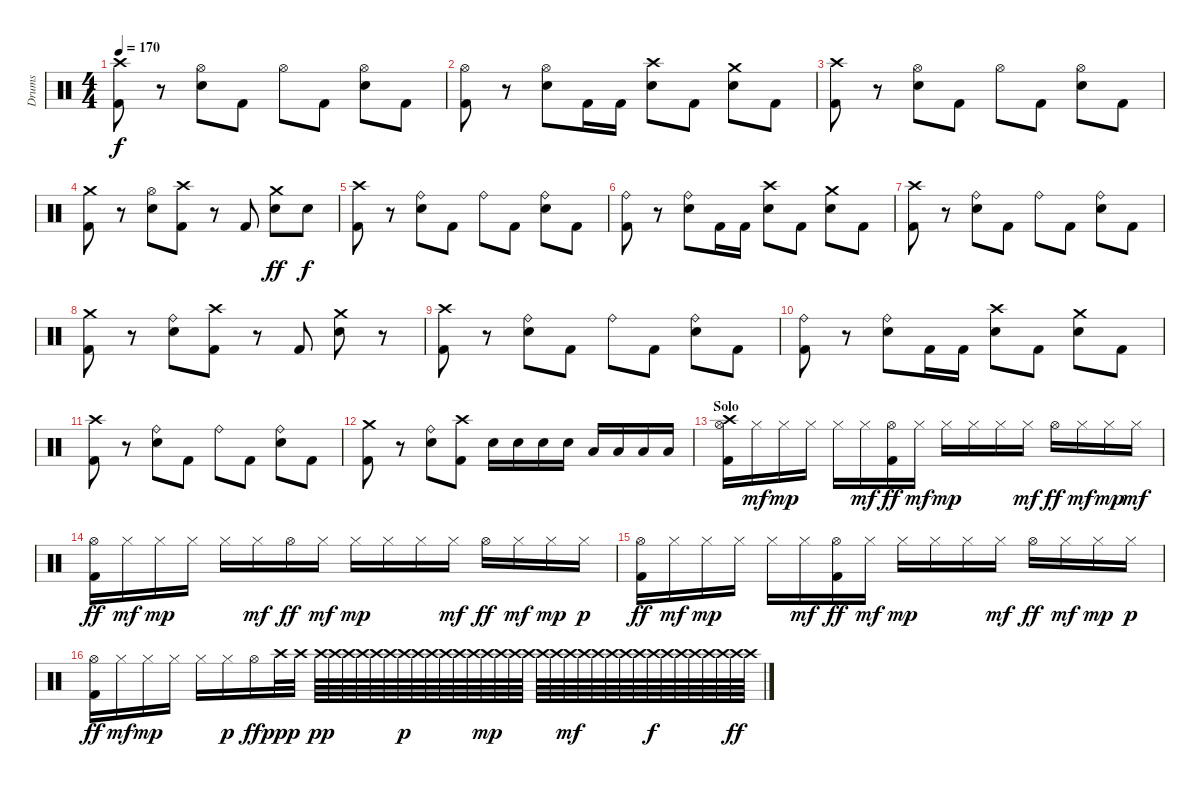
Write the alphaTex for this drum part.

\track ("Drums" "Drums") {instrument percussion}
\staff {score}
\articulation defaults
\ts (4 4)
\tempo 170
\clef neutral
\ks c
("Kick (hit) 2" "Crash high (hit)").8{dy f} r.8 ("Hi-Hat (open)" "Electric Snare (hit)").8 "Kick (hit) 2".8 "Hi-Hat (open)".8 "Kick (hit) 2".8 ("Hi-Hat (open)" "Electric Snare (hit)").8 "Kick (hit) 2".8 |
("Kick (hit) 2" "Hi-Hat (open)").8 r.8 ("Hi-Hat (open)" "Electric Snare (hit)").8 "Kick (hit) 2".16 "Kick (hit) 2".16 ("Electric Snare (hit)" "Crash high (hit)").8 "Kick (hit) 2".8 ("Electric Snare (hit)" "Crash medium (hit)").8 "Kick (hit) 2".8 |
("Kick (hit) 2" "Crash high (hit)").8 r.8 ("Hi-Hat (open)" "Electric Snare (hit)").8 "Kick (hit) 2".8 "Hi-Hat (open)".8 "Kick (hit) 2".8 ("Hi-Hat (open)" "Electric Snare (hit)").8 "Kick (hit) 2".8 |
("Kick (hit) 2" "Crash medium (hit)").8 r.8 ("Hi-Hat (open)" "Electric Snare (hit)").8 ("Kick (hit) 2" "Crash high (hit)").8 r.8 "Kick (hit) 2".8 ("Electric Snare (hit)" "Crash medium (hit)").8{dy ff} "Electric Snare (hit)".8{dy f} |
("Kick (hit) 2" "Crash high (hit)").8 r.8 ("Ride (bell)" "Electric Snare (hit)").8 "Kick (hit) 2".8 "Ride (bell)".8 "Kick (hit) 2".8 ("Ride (bell)" "Electric Snare (hit)").8 "Kick (hit) 2".8 |
("Kick (hit) 2" "Ride (bell)").8 r.8 ("Ride (bell)" "Electric Snare (hit)").8 "Kick (hit) 2".16 "Kick (hit) 2".16 ("Electric Snare (hit)" "Crash high (hit)").8 "Kick (hit) 2".8 ("Electric Snare (hit)" "Crash medium (hit)").8 "Kick (hit) 2".8 |
("Kick (hit) 2" "Crash high (hit)").8 r.8 ("Ride (bell)" "Electric Snare (hit)").8 "Kick (hit) 2".8 "Ride (bell)".8 "Kick (hit) 2".8 ("Ride (bell)" "Electric Snare (hit)").8 "Kick (hit) 2".8 |
("Kick (hit) 2" "Crash medium (hit)").8 r.8 ("Ride (bell)" "Electric Snare (hit)").8 ("Kick (hit) 2" "Crash high (hit)").8 r.8 "Kick (hit) 2".8 ("Electric Snare (hit)" "Crash medium (hit)").8 r.8 |
("Kick (hit) 2" "Crash high (hit)").8 r.8 ("Ride (bell)" "Electric Snare (hit)").8 "Kick (hit) 2".8 "Ride (bell)".8 "Kick (hit) 2".8 ("Ride (bell)" "Electric Snare (hit)").8 "Kick (hit) 2".8 |
("Kick (hit) 2" "Ride (bell)").8 r.8 ("Ride (bell)" "Electric Snare (hit)").8 "Kick (hit) 2".16 "Kick (hit) 2".16 ("Electric Snare (hit)" "Crash high (hit)").8 "Kick (hit) 2".8 ("Electric Snare (hit)" "Crash medium (hit)").8 "Kick (hit) 2".8 |
("Kick (hit) 2" "Crash high (hit)").8 r.8 ("Ride (bell)" "Electric Snare (hit)").8 "Kick (hit) 2".8 "Ride (bell)".8 "Kick (hit) 2".8 ("Ride (bell)" "Electric Snare (hit)").8 "Kick (hit) 2".8 |
("Kick (hit) 2" "Crash medium (hit)").8 r.8 ("Ride (bell)" "Electric Snare (hit)").8 ("Kick (hit) 2" "Crash high (hit)").8 "Electric Snare (hit)".16 "Electric Snare (hit)".16 "Electric Snare (hit)".16 "Electric Snare (hit)".16 "Low Tom (hit)".16 "Low Tom (hit)".16 "Low Tom (hit)".16 "Low Tom (hit)".16 |
\section ("" "Solo")
("Kick (hit) 2" "Hi-Hat (open)" "Crash high (hit)").16 "Hi-Hat (closed)".16{dy mf} "Hi-Hat (closed)".16{dy mp} "Hi-Hat (closed)".16 "Hi-Hat (closed)".16 "Hi-Hat (closed)".16{dy mf} ("Kick (hit) 2" "Hi-Hat (open)").16{dy ff} "Hi-Hat (closed)".16{dy mf} "Hi-Hat (closed)".16{dy mp} "Hi-Hat (closed)".16 "Hi-Hat (closed)".16 "Hi-Hat (closed)".16{dy mf} "Hi-Hat (open)".16{dy ff} "Hi-Hat (closed)".16{dy mf} "Hi-Hat (closed)".16{dy mp} "Hi-Hat (closed)".16{dy mf} |
("Kick (hit) 2" "Hi-Hat (open)").16{dy ff} "Hi-Hat (closed)".16{dy mf} "Hi-Hat (closed)".16{dy mp} "Hi-Hat (closed)".16 "Hi-Hat (closed)".16 "Hi-Hat (closed)".16{dy mf} "Hi-Hat (open)".16{dy ff} "Hi-Hat (closed)".16{dy mf} "Hi-Hat (closed)".16{dy mp} "Hi-Hat (closed)".16 "Hi-Hat (closed)".16 "Hi-Hat (closed)".16{dy mf} "Hi-Hat (open)".16{dy ff} "Hi-Hat (closed)".16{dy mf} "Hi-Hat (closed)".16{dy mp} "Hi-Hat (closed)".16{dy p} |
("Kick (hit) 2" "Hi-Hat (open)").16{dy ff} "Hi-Hat (closed)".16{dy mf} "Hi-Hat (closed)".16{dy mp} "Hi-Hat (closed)".16 "Hi-Hat (closed)".16 "Hi-Hat (closed)".16{dy mf} ("Kick (hit) 2" "Hi-Hat (open)").16{dy ff} "Hi-Hat (closed)".16{dy mf} "Hi-Hat (closed)".16{dy mp} "Hi-Hat (closed)".16 "Hi-Hat (closed)".16 "Hi-Hat (closed)".16{dy mf} "Hi-Hat (open)".16{dy ff} "Hi-Hat (closed)".16{dy mf} "Hi-Hat (closed)".16{dy mp} "Hi-Hat (closed)".16{dy p} |
("Kick (hit) 2" "Hi-Hat (open)").16{dy ff} "Hi-Hat (closed)".16{dy mf} "Hi-Hat (closed)".16{dy mp} "Hi-Hat (closed)".16 "Hi-Hat (closed)".16 "Hi-Hat (closed)".16{dy p} "Hi-Hat (open)".16{dy ff} "Crash high (hit)".32{dy ppp} "Crash high (hit)".32 "Crash high (hit)".64{dy pp} "Crash high (hit)".64 "Crash high (hit)".64 "Crash high (hit)".64 "Crash high (hit)".64 "Crash high (hit)".64 "Crash high (hit)".64{dy p} "Crash high (hit)".64 "Crash high (hit)".64 "Crash high (hit)".64 "Crash high (hit)".64 "Crash high (hit)".64 "Crash high (hit)".64{dy mp} "Crash high (hit)".64 "Crash high (hit)".64 "Crash high (hit)".64 "Crash high (hit)".64 "Crash high (hit)".64 "Crash high (hit)".64{dy mf} "Crash high (hit)".64 "Crash high (hit)".64 "Crash high (hit)".64 "Crash high (hit)".64 "Crash high (hit)".64 "Crash high (hit)".64{dy f} "Crash high (hit)".64 "Crash high (hit)".64 "Crash high (hit)".64 "Crash high (hit)".64 "Crash high (hit)".64 "Crash high (hit)".64{dy ff} "Crash high (hit)".64
